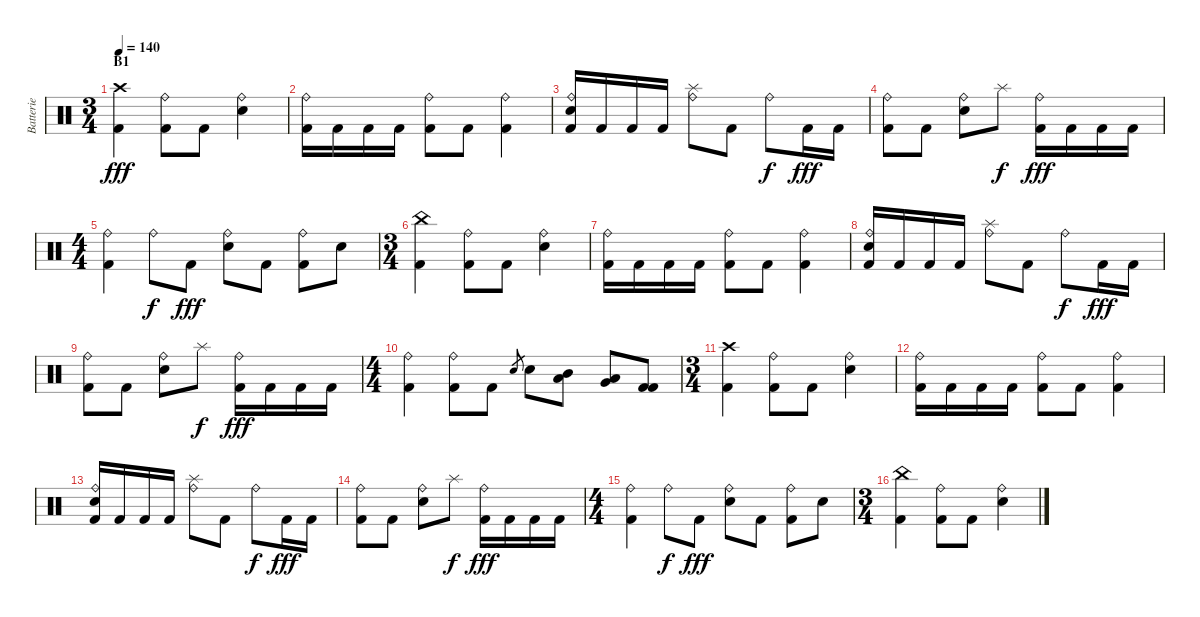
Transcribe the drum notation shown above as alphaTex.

\track ("Batterie" "Batterie") {instrument percussion}
\staff {score}
\articulation defaults
\ts (3 4)
\section ("" "B1")
\tempo 140
\clef neutral
\ks c
("Crash high (hit)" "Kick (hit) 2").4{dy fff} ("Ride (bell)" "Kick (hit) 2").8 "Kick (hit) 2".8 ("Ride (bell)" "Electric Snare (hit)").4 |
("Ride (bell)" "Kick (hit) 2").16 "Kick (hit) 2".16 "Kick (hit) 2".16 "Kick (hit) 2".16 ("Ride (bell)" "Kick (hit) 2").8 "Kick (hit) 2".8 ("Ride (bell)" "Kick (hit) 2").4 |
("Ride (bell)" "Electric Snare (hit)" "Kick (hit) 2").16 "Kick (hit) 2".16 "Kick (hit) 2".16 "Kick (hit) 2".16 ("Ride (bell)" "Splash (hit)").8 "Kick (hit) 2".8 "Ride (bell)".8{dy f} "Kick (hit) 2".16{dy fff} "Kick (hit) 2".16 |
("Ride (bell)" "Kick (hit) 2").8 "Kick (hit) 2".8 ("Ride (bell)" "Electric Snare (hit)").8 "Splash (hit)".8{dy f} ("Ride (bell)" "Kick (hit) 2").16{dy fff} "Kick (hit) 2".16 "Kick (hit) 2".16 "Kick (hit) 2".16 |
\ts (4 4)
("Ride (bell)" "Kick (hit) 2").4 "Ride (bell)".8{dy f} "Kick (hit) 2".8{dy fff} ("Ride (bell)" "Electric Snare (hit)").8 "Kick (hit) 2".8 ("Ride (bell)" "Kick (hit) 2").8 "Electric Snare (hit)".8 |
\ts (3 4)
("China (hit)" "Kick (hit) 2").4 ("Ride (bell)" "Kick (hit) 2").8 "Kick (hit) 2".8 ("Ride (bell)" "Electric Snare (hit)").4 |
("Ride (bell)" "Kick (hit) 2").16 "Kick (hit) 2".16 "Kick (hit) 2".16 "Kick (hit) 2".16 ("Ride (bell)" "Kick (hit) 2").8 "Kick (hit) 2".8 ("Ride (bell)" "Kick (hit) 2").4 |
("Ride (bell)" "Electric Snare (hit)" "Kick (hit) 2").16 "Kick (hit) 2".16 "Kick (hit) 2".16 "Kick (hit) 2".16 ("Ride (bell)" "Splash (hit)").8 "Kick (hit) 2".8 "Ride (bell)".8{dy f} "Kick (hit) 2".16{dy fff} "Kick (hit) 2".16 |
("Ride (bell)" "Kick (hit) 2").8 "Kick (hit) 2".8 ("Ride (bell)" "Electric Snare (hit)").8 "Splash (hit)".8{dy f} ("Ride (bell)" "Kick (hit) 2").16{dy fff} "Kick (hit) 2".16 "Kick (hit) 2".16 "Kick (hit) 2".16 |
\ts (4 4)
("Ride (bell)" "Kick (hit) 2").4 ("Ride (bell)" "Kick (hit) 2").8 "Kick (hit) 2".8 "Electric Snare (hit)".8{gr} "Electric Snare (hit)".8 ("Mid Tom (hit)" "Low Tom (hit)").8 ("Very Low Tom (hit)" "Low Floor Tom (hit)").8 ("Kick (hit) 2" "Kick (hit) 2").8 |
\ts (3 4)
("Crash high (hit)" "Kick (hit) 2").4 ("Ride (bell)" "Kick (hit) 2").8 "Kick (hit) 2".8 ("Ride (bell)" "Electric Snare (hit)").4 |
("Ride (bell)" "Kick (hit) 2").16 "Kick (hit) 2".16 "Kick (hit) 2".16 "Kick (hit) 2".16 ("Ride (bell)" "Kick (hit) 2").8 "Kick (hit) 2".8 ("Ride (bell)" "Kick (hit) 2").4 |
("Ride (bell)" "Electric Snare (hit)" "Kick (hit) 2").16 "Kick (hit) 2".16 "Kick (hit) 2".16 "Kick (hit) 2".16 ("Ride (bell)" "Splash (hit)").8 "Kick (hit) 2".8 "Ride (bell)".8{dy f} "Kick (hit) 2".16{dy fff} "Kick (hit) 2".16 |
("Ride (bell)" "Kick (hit) 2").8 "Kick (hit) 2".8 ("Ride (bell)" "Electric Snare (hit)").8 "Splash (hit)".8{dy f} ("Ride (bell)" "Kick (hit) 2").16{dy fff} "Kick (hit) 2".16 "Kick (hit) 2".16 "Kick (hit) 2".16 |
\ts (4 4)
("Ride (bell)" "Kick (hit) 2").4 "Ride (bell)".8{dy f} "Kick (hit) 2".8{dy fff} ("Ride (bell)" "Electric Snare (hit)").8 "Kick (hit) 2".8 ("Ride (bell)" "Kick (hit) 2").8 "Electric Snare (hit)".8 |
\ts (3 4)
("China (hit)" "Kick (hit) 2").4 ("Ride (bell)" "Kick (hit) 2").8 "Kick (hit) 2".8 ("Ride (bell)" "Electric Snare (hit)").4
